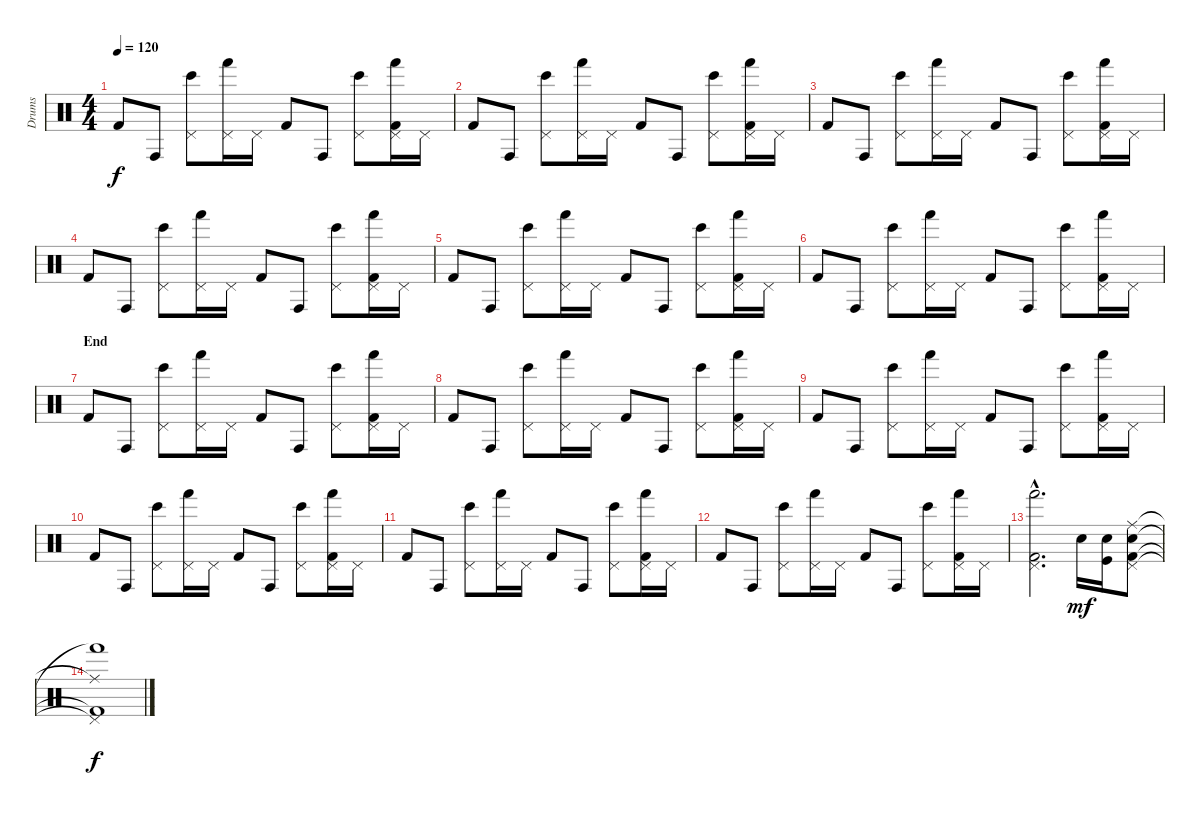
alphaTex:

\track ("Drums" "Drums") {instrument percussion}
\staff {score}
\articulation defaults
\ts (4 4)
\tempo 120
\clef neutral
\ks c "Kick (hit) 2".8{dy f} "Conga high (hit)".8
("Pedal Hi-Hat (hit)" "Bongo High (hit)").8 ("Pedal Hi-Hat (hit)" "Hand (hit)").16 "Pedal Hi-Hat (hit)".16 "Kick (hit) 2".8 "Conga high (hit)".8 ("Pedal Hi-Hat (hit)" "Bongo High (hit)").8 ("Pedal Hi-Hat (hit)" "Hand (hit)" "Kick (hit) 2").16 "Pedal Hi-Hat (hit)".16 |
"Kick (hit) 2".8 "Conga high (hit)".8 ("Pedal Hi-Hat (hit)" "Bongo High (hit)").8 ("Pedal Hi-Hat (hit)" "Hand (hit)").16 "Pedal Hi-Hat (hit)".16 "Kick (hit) 2".8 "Conga high (hit)".8 ("Pedal Hi-Hat (hit)" "Bongo High (hit)").8 ("Pedal Hi-Hat (hit)" "Hand (hit)" "Kick (hit) 2").16 "Pedal Hi-Hat (hit)".16 |
"Kick (hit) 2".8 "Conga high (hit)".8 ("Pedal Hi-Hat (hit)" "Bongo High (hit)").8 ("Pedal Hi-Hat (hit)" "Hand (hit)").16 "Pedal Hi-Hat (hit)".16 "Kick (hit) 2".8 "Conga high (hit)".8 ("Pedal Hi-Hat (hit)" "Bongo High (hit)").8 ("Pedal Hi-Hat (hit)" "Hand (hit)" "Kick (hit) 2").16 "Pedal Hi-Hat (hit)".16 |
"Kick (hit) 2".8 "Conga high (hit)".8 ("Pedal Hi-Hat (hit)" "Bongo High (hit)").8 ("Pedal Hi-Hat (hit)" "Hand (hit)").16 "Pedal Hi-Hat (hit)".16 "Kick (hit) 2".8 "Conga high (hit)".8 ("Pedal Hi-Hat (hit)" "Bongo High (hit)").8 ("Pedal Hi-Hat (hit)" "Hand (hit)" "Kick (hit) 2").16 "Pedal Hi-Hat (hit)".16 |
"Kick (hit) 2".8 "Conga high (hit)".8 ("Pedal Hi-Hat (hit)" "Bongo High (hit)").8 ("Pedal Hi-Hat (hit)" "Hand (hit)").16 "Pedal Hi-Hat (hit)".16 "Kick (hit) 2".8 "Conga high (hit)".8 ("Pedal Hi-Hat (hit)" "Bongo High (hit)").8 ("Pedal Hi-Hat (hit)" "Hand (hit)" "Kick (hit) 2").16 "Pedal Hi-Hat (hit)".16 |
"Kick (hit) 2".8 "Conga high (hit)".8 ("Pedal Hi-Hat (hit)" "Bongo High (hit)").8 ("Pedal Hi-Hat (hit)" "Hand (hit)").16 "Pedal Hi-Hat (hit)".16 "Kick (hit) 2".8 "Conga high (hit)".8 ("Pedal Hi-Hat (hit)" "Bongo High (hit)").8 ("Pedal Hi-Hat (hit)" "Hand (hit)" "Kick (hit) 2").16 "Pedal Hi-Hat (hit)".16 |
\section ("" "End")
"Kick (hit) 2".8 "Conga high (hit)".8 ("Pedal Hi-Hat (hit)" "Bongo High (hit)").8 ("Pedal Hi-Hat (hit)" "Hand (hit)").16 "Pedal Hi-Hat (hit)".16 "Kick (hit) 2".8 "Conga high (hit)".8 ("Pedal Hi-Hat (hit)" "Bongo High (hit)").8 ("Pedal Hi-Hat (hit)" "Hand (hit)" "Kick (hit) 2").16 "Pedal Hi-Hat (hit)".16 |
"Kick (hit) 2".8 "Conga high (hit)".8 ("Pedal Hi-Hat (hit)" "Bongo High (hit)").8 ("Pedal Hi-Hat (hit)" "Hand (hit)").16 "Pedal Hi-Hat (hit)".16 "Kick (hit) 2".8 "Conga high (hit)".8 ("Pedal Hi-Hat (hit)" "Bongo High (hit)").8 ("Pedal Hi-Hat (hit)" "Hand (hit)" "Kick (hit) 2").16 "Pedal Hi-Hat (hit)".16 |
"Kick (hit) 2".8 "Conga high (hit)".8 ("Pedal Hi-Hat (hit)" "Bongo High (hit)").8 ("Pedal Hi-Hat (hit)" "Hand (hit)").16 "Pedal Hi-Hat (hit)".16 "Kick (hit) 2".8 "Conga high (hit)".8 ("Pedal Hi-Hat (hit)" "Bongo High (hit)").8 ("Pedal Hi-Hat (hit)" "Hand (hit)" "Kick (hit) 2").16 "Pedal Hi-Hat (hit)".16 |
"Kick (hit) 2".8 "Conga high (hit)".8 ("Pedal Hi-Hat (hit)" "Bongo High (hit)").8 ("Pedal Hi-Hat (hit)" "Hand (hit)").16 "Pedal Hi-Hat (hit)".16 "Kick (hit) 2".8 "Conga high (hit)".8 ("Pedal Hi-Hat (hit)" "Bongo High (hit)").8 ("Pedal Hi-Hat (hit)" "Hand (hit)" "Kick (hit) 2").16 "Pedal Hi-Hat (hit)".16 |
"Kick (hit) 2".8 "Conga high (hit)".8 ("Pedal Hi-Hat (hit)" "Bongo High (hit)").8 ("Pedal Hi-Hat (hit)" "Hand (hit)").16 "Pedal Hi-Hat (hit)".16 "Kick (hit) 2".8 "Conga high (hit)".8 ("Pedal Hi-Hat (hit)" "Bongo High (hit)").8 ("Pedal Hi-Hat (hit)" "Hand (hit)" "Kick (hit) 2").16 "Pedal Hi-Hat (hit)".16 |
"Kick (hit) 2".8 "Conga high (hit)".8 ("Pedal Hi-Hat (hit)" "Bongo High (hit)").8 ("Pedal Hi-Hat (hit)" "Hand (hit)").16 "Pedal Hi-Hat (hit)".16 "Kick (hit) 2".8 "Conga high (hit)".8 ("Pedal Hi-Hat (hit)" "Bongo High (hit)").8 ("Pedal Hi-Hat (hit)" "Hand (hit)" "Kick (hit) 2").16 "Pedal Hi-Hat (hit)".16 |
("Pedal Hi-Hat (hit)"{hac} "Hand (hit)"{hac} "Kick (hit) 2"{hac}).2{d} "Electric Snare (hit)".16{dy mf} ("Electric Snare (hit)" "Kick (hit)").16 ("Pedal Hi-Hat (hit)" "Ride (middle)" "Electric Snare (hit)" "Kick (hit) 2").8 |
("Pedal Hi-Hat (hit)"{t} "Ride (middle)"{t} "Hand (hit)"{t} "Kick (hit) 2"{t}).1{dy f}
